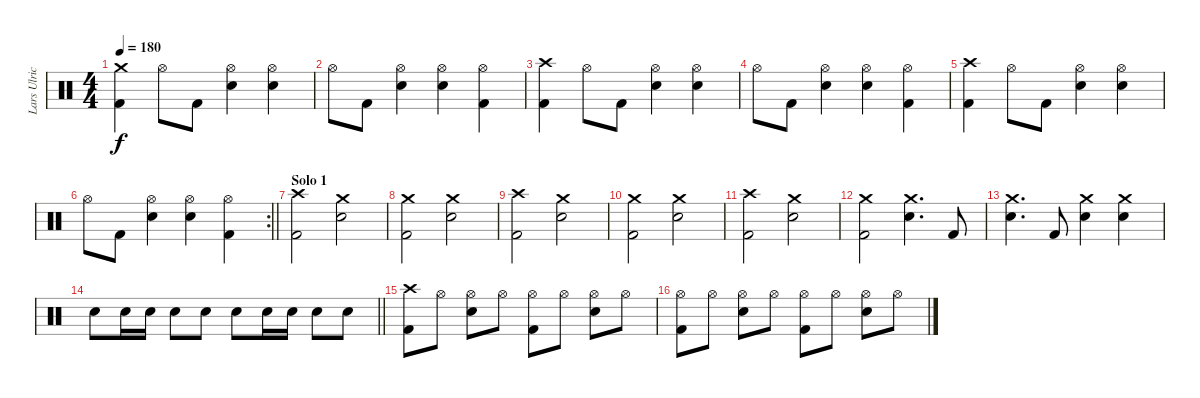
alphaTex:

\track ("Lars Ulrich" "Lars Ulric") {instrument percussion}
\staff {score}
\articulation defaults
\ts (4 4)
\tempo 180
\clef neutral
\ks c
("Crash medium (hit)" "Kick (hit) 2").4{dy f} "Hi-Hat (open)".8 "Kick (hit) 2".8 ("Hi-Hat (open)" "Snare (hit) 2").4 ("Hi-Hat (open)" "Snare (hit) 2").4 |
"Hi-Hat (open)".8 "Kick (hit) 2".8 ("Hi-Hat (open)" "Snare (hit) 2").4 ("Hi-Hat (open)" "Snare (hit) 2").4 ("Hi-Hat (open)" "Kick (hit) 2").4 |
("Crash high (hit)" "Kick (hit) 2").4 "Hi-Hat (open)".8 "Kick (hit) 2".8 ("Hi-Hat (open)" "Snare (hit) 2").4 ("Hi-Hat (open)" "Snare (hit) 2").4 |
"Hi-Hat (open)".8 "Kick (hit) 2".8 ("Hi-Hat (open)" "Snare (hit) 2").4 ("Hi-Hat (open)" "Snare (hit) 2").4 ("Hi-Hat (open)" "Kick (hit) 2").4 |
("Crash high (hit)" "Kick (hit) 2").4 "Hi-Hat (open)".8 "Kick (hit) 2".8 ("Hi-Hat (open)" "Snare (hit) 2").4 ("Hi-Hat (open)" "Snare (hit) 2").4 |
\rc 2
\barLineRight lightlight "Hi-Hat (open)".8 "Kick (hit) 2".8
("Hi-Hat (open)" "Snare (hit) 2").4 ("Hi-Hat (open)" "Snare (hit) 2").4 ("Hi-Hat (open)" "Kick (hit) 2").4 |
\section ("" "Solo 1")
("Crash high (hit)" "Kick (hit) 2").2 ("Crash medium (hit)" "Snare (hit) 2").2 |
("Crash medium (hit)" "Kick (hit) 2").2 ("Crash medium (hit)" "Snare (hit) 2").2 |
("Crash high (hit)" "Kick (hit) 2").2 ("Crash medium (hit)" "Snare (hit) 2").2 |
("Crash medium (hit)" "Kick (hit) 2").2 ("Crash medium (hit)" "Snare (hit) 2").2 |
("Crash high (hit)" "Kick (hit) 2").2 ("Crash medium (hit)" "Snare (hit) 2").2 |
("Crash medium (hit)" "Kick (hit) 2").2 ("Crash medium (hit)" "Snare (hit) 2").4{d} "Kick (hit) 2".8 |
("Crash medium (hit)" "Snare (hit) 2").4{d} "Kick (hit) 2".8 ("Crash medium (hit)" "Snare (hit) 2").4 ("Crash medium (hit)" "Snare (hit) 2").4 |
\barLineRight lightlight "Snare (hit) 2".8 "Snare (hit) 2".16 "Snare (hit) 2".16 "Snare (hit) 2".8 "Snare (hit) 2".8 "Snare (hit) 2".8 "Snare (hit) 2".16 "Snare (hit) 2".16 "Snare (hit) 2".8 "Snare (hit) 2".8
|
("Crash high (hit)" "Kick (hit) 2").8 "Hi-Hat (open)".8 ("Hi-Hat (open)" "Snare (hit) 2").8 "Hi-Hat (open)".8 ("Hi-Hat (open)" "Kick (hit) 2").8 "Hi-Hat (open)".8 ("Hi-Hat (open)" "Snare (hit) 2").8 "Hi-Hat (open)".8 |
("Hi-Hat (open)" "Kick (hit) 2").8 "Hi-Hat (open)".8 ("Hi-Hat (open)" "Snare (hit) 2").8 "Hi-Hat (open)".8 ("Hi-Hat (open)" "Kick (hit) 2").8 "Hi-Hat (open)".8 ("Hi-Hat (open)" "Snare (hit) 2").8 "Hi-Hat (open)".8
